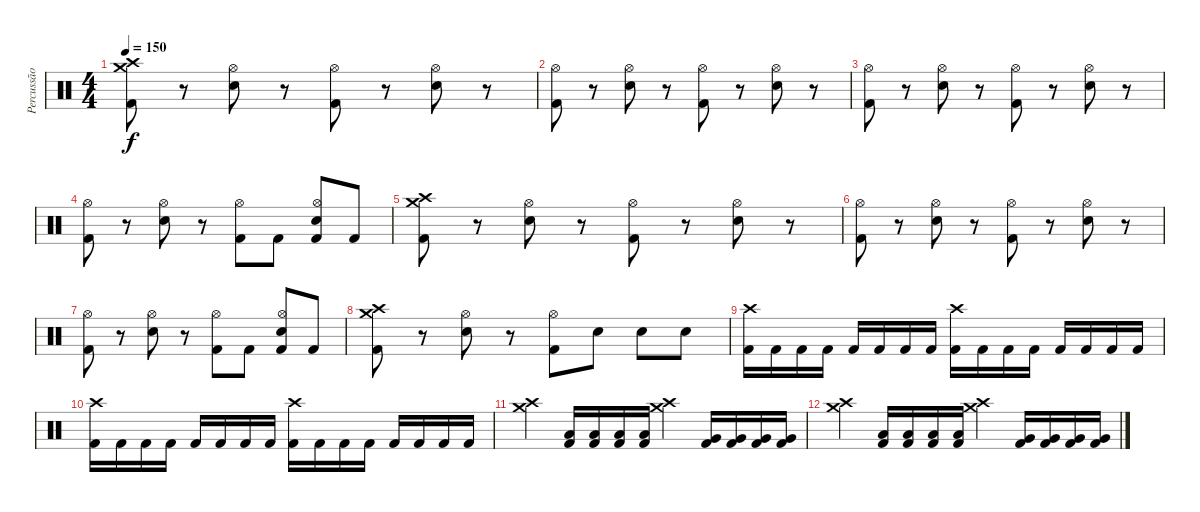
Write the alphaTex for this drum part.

\track ("Percussão" "Percussão") {instrument percussion}
\staff {score}
\articulation defaults
\ts (4 4)
\tempo 150
\clef neutral
\ks c
("Crash high (hit)" "Kick (hit) 2" "Crash medium (hit)").8{dy f} r.8 ("Hi-Hat (open)" "Electric Snare (hit)").8 r.8 ("Hi-Hat (open)" "Kick (hit) 2").8 r.8 ("Hi-Hat (open)" "Electric Snare (hit)").8 r.8 |
("Hi-Hat (open)" "Kick (hit) 2").8 r.8 ("Hi-Hat (open)" "Electric Snare (hit)").8 r.8 ("Hi-Hat (open)" "Kick (hit) 2").8 r.8 ("Hi-Hat (open)" "Electric Snare (hit)").8 r.8 |
("Hi-Hat (open)" "Kick (hit) 2").8 r.8 ("Hi-Hat (open)" "Electric Snare (hit)").8 r.8 ("Hi-Hat (open)" "Kick (hit) 2").8 r.8 ("Hi-Hat (open)" "Electric Snare (hit)").8 r.8 |
("Hi-Hat (open)" "Kick (hit) 2").8 r.8 ("Hi-Hat (open)" "Electric Snare (hit)").8 r.8 ("Hi-Hat (open)" "Kick (hit) 2").8 "Kick (hit) 2".8 ("Hi-Hat (open)" "Kick (hit) 2" "Electric Snare (hit)").8 "Kick (hit) 2".8 |
("Crash high (hit)" "Kick (hit) 2" "Crash medium (hit)").8 r.8 ("Hi-Hat (open)" "Electric Snare (hit)").8 r.8 ("Hi-Hat (open)" "Kick (hit) 2").8 r.8 ("Hi-Hat (open)" "Electric Snare (hit)").8 r.8 |
("Hi-Hat (open)" "Kick (hit) 2").8 r.8 ("Hi-Hat (open)" "Electric Snare (hit)").8 r.8 ("Hi-Hat (open)" "Kick (hit) 2").8 r.8 ("Hi-Hat (open)" "Electric Snare (hit)").8 r.8 |
("Hi-Hat (open)" "Kick (hit) 2").8 r.8 ("Hi-Hat (open)" "Electric Snare (hit)").8 r.8 ("Hi-Hat (open)" "Kick (hit) 2").8 "Kick (hit) 2".8 ("Hi-Hat (open)" "Kick (hit) 2" "Electric Snare (hit)").8 "Kick (hit) 2".8 |
("Crash high (hit)" "Kick (hit) 2" "Crash medium (hit)").8 r.8 ("Hi-Hat (open)" "Electric Snare (hit)").8 r.8 ("Hi-Hat (open)" "Kick (hit) 2").8 "Electric Snare (hit)".8 "Electric Snare (hit)".8 "Electric Snare (hit)".8 |
("Crash high (hit)" "Kick (hit) 2").16 "Kick (hit) 2".16 "Kick (hit) 2".16 "Kick (hit) 2".16 "Kick (hit) 2".16 "Kick (hit) 2".16 "Kick (hit) 2".16 "Kick (hit) 2".16 ("Crash high (hit)" "Kick (hit) 2").16 "Kick (hit) 2".16 "Kick (hit) 2".16 "Kick (hit) 2".16 "Kick (hit) 2".16 "Kick (hit) 2".16 "Kick (hit) 2".16 "Kick (hit) 2".16 |
("Crash high (hit)" "Kick (hit) 2").16 "Kick (hit) 2".16 "Kick (hit) 2".16 "Kick (hit) 2".16 "Kick (hit) 2".16 "Kick (hit) 2".16 "Kick (hit) 2".16 "Kick (hit) 2".16 ("Crash high (hit)" "Kick (hit) 2").16 "Kick (hit) 2".16 "Kick (hit) 2".16 "Kick (hit) 2".16 "Kick (hit) 2".16 "Kick (hit) 2".16 "Kick (hit) 2".16 "Kick (hit) 2".16 |
("Crash high (hit)" "Crash medium (hit)").4 ("Low Tom (hit)" "Kick (hit) 2").16 ("Low Tom (hit)" "Kick (hit) 2").16 ("Low Tom (hit)" "Kick (hit) 2").16 ("Low Tom (hit)" "Kick (hit) 2").16 ("Crash high (hit)" "Crash medium (hit)").4 ("Very Low Tom (hit)" "Kick (hit) 2").16 ("Very Low Tom (hit)" "Kick (hit) 2").16 ("Very Low Tom (hit)" "Kick (hit) 2").16 ("Very Low Tom (hit)" "Kick (hit) 2").16 |
("Crash high (hit)" "Crash medium (hit)").4 ("Low Tom (hit)" "Kick (hit) 2").16 ("Low Tom (hit)" "Kick (hit) 2").16 ("Low Tom (hit)" "Kick (hit) 2").16 ("Low Tom (hit)" "Kick (hit) 2").16 ("Crash high (hit)" "Crash medium (hit)").4 ("Very Low Tom (hit)" "Kick (hit) 2").16 ("Very Low Tom (hit)" "Kick (hit) 2").16 ("Very Low Tom (hit)" "Kick (hit) 2").16 ("Very Low Tom (hit)" "Kick (hit) 2").16
